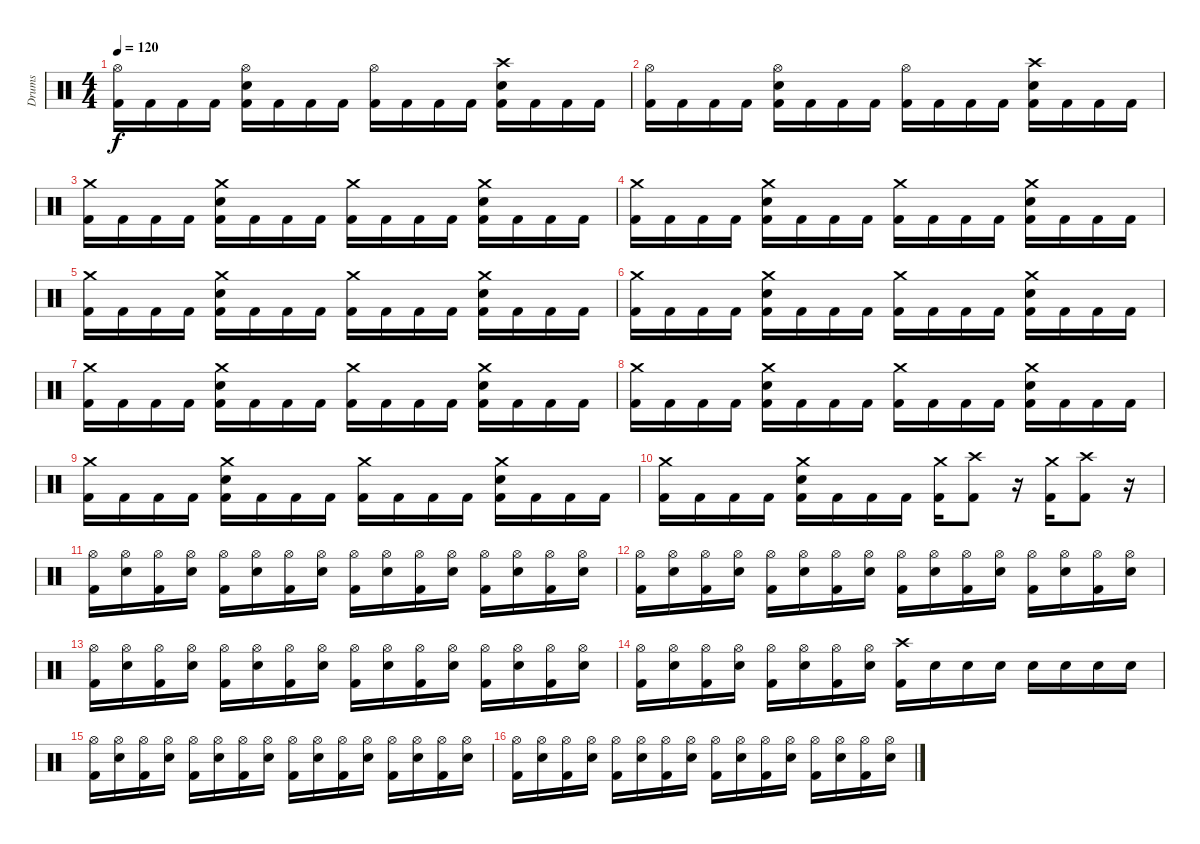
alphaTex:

\track ("Drums" "Drums") {instrument percussion}
\staff {score}
\articulation defaults
\ts (4 4)
\tempo 120
\clef neutral
\ks c
("Hi-Hat (open)" "Kick (hit) 2").16{dy f} "Kick (hit) 2".16 "Kick (hit) 2".16 "Kick (hit) 2".16 ("Hi-Hat (open)" "Electric Snare (hit)" "Kick (hit) 2").16 "Kick (hit) 2".16 "Kick (hit) 2".16 "Kick (hit) 2".16 ("Hi-Hat (open)" "Kick (hit) 2").16 "Kick (hit) 2".16 "Kick (hit) 2".16 "Kick (hit) 2".16 ("Crash high (hit)" "Electric Snare (hit)" "Kick (hit) 2").16 "Kick (hit) 2".16 "Kick (hit) 2".16 "Kick (hit) 2".16 |
("Hi-Hat (open)" "Kick (hit) 2").16 "Kick (hit) 2".16 "Kick (hit) 2".16 "Kick (hit) 2".16 ("Hi-Hat (open)" "Electric Snare (hit)" "Kick (hit) 2").16 "Kick (hit) 2".16 "Kick (hit) 2".16 "Kick (hit) 2".16 ("Hi-Hat (open)" "Kick (hit) 2").16 "Kick (hit) 2".16 "Kick (hit) 2".16 "Kick (hit) 2".16 ("Crash high (hit)" "Electric Snare (hit)" "Kick (hit) 2").16 "Kick (hit) 2".16 "Kick (hit) 2".16 "Kick (hit) 2".16 |
("Crash medium (hit)" "Kick (hit) 2").16 "Kick (hit) 2".16 "Kick (hit) 2".16 "Kick (hit) 2".16 ("Crash medium (hit)" "Electric Snare (hit)" "Kick (hit) 2").16 "Kick (hit) 2".16 "Kick (hit) 2".16 "Kick (hit) 2".16 ("Crash medium (hit)" "Kick (hit) 2").16 "Kick (hit) 2".16 "Kick (hit) 2".16 "Kick (hit) 2".16 ("Crash medium (hit)" "Electric Snare (hit)" "Kick (hit) 2").16 "Kick (hit) 2".16 "Kick (hit) 2".16 "Kick (hit) 2".16 |
("Crash medium (hit)" "Kick (hit) 2").16 "Kick (hit) 2".16 "Kick (hit) 2".16 "Kick (hit) 2".16 ("Crash medium (hit)" "Electric Snare (hit)" "Kick (hit) 2").16 "Kick (hit) 2".16 "Kick (hit) 2".16 "Kick (hit) 2".16 ("Crash medium (hit)" "Kick (hit) 2").16 "Kick (hit) 2".16 "Kick (hit) 2".16 "Kick (hit) 2".16 ("Crash medium (hit)" "Electric Snare (hit)" "Kick (hit) 2").16 "Kick (hit) 2".16 "Kick (hit) 2".16 "Kick (hit) 2".16 |
("Crash medium (hit)" "Kick (hit) 2").16 "Kick (hit) 2".16 "Kick (hit) 2".16 "Kick (hit) 2".16 ("Crash medium (hit)" "Electric Snare (hit)" "Kick (hit) 2").16 "Kick (hit) 2".16 "Kick (hit) 2".16 "Kick (hit) 2".16 ("Crash medium (hit)" "Kick (hit) 2").16 "Kick (hit) 2".16 "Kick (hit) 2".16 "Kick (hit) 2".16 ("Crash medium (hit)" "Electric Snare (hit)" "Kick (hit) 2").16 "Kick (hit) 2".16 "Kick (hit) 2".16 "Kick (hit) 2".16 |
("Crash medium (hit)" "Kick (hit) 2").16 "Kick (hit) 2".16 "Kick (hit) 2".16 "Kick (hit) 2".16 ("Crash medium (hit)" "Electric Snare (hit)" "Kick (hit) 2").16 "Kick (hit) 2".16 "Kick (hit) 2".16 "Kick (hit) 2".16 ("Crash medium (hit)" "Kick (hit) 2").16 "Kick (hit) 2".16 "Kick (hit) 2".16 "Kick (hit) 2".16 ("Crash medium (hit)" "Electric Snare (hit)" "Kick (hit) 2").16 "Kick (hit) 2".16 "Kick (hit) 2".16 "Kick (hit) 2".16 |
("Crash medium (hit)" "Kick (hit) 2").16 "Kick (hit) 2".16 "Kick (hit) 2".16 "Kick (hit) 2".16 ("Crash medium (hit)" "Electric Snare (hit)" "Kick (hit) 2").16 "Kick (hit) 2".16 "Kick (hit) 2".16 "Kick (hit) 2".16 ("Crash medium (hit)" "Kick (hit) 2").16 "Kick (hit) 2".16 "Kick (hit) 2".16 "Kick (hit) 2".16 ("Crash medium (hit)" "Electric Snare (hit)" "Kick (hit) 2").16 "Kick (hit) 2".16 "Kick (hit) 2".16 "Kick (hit) 2".16 |
("Crash medium (hit)" "Kick (hit) 2").16 "Kick (hit) 2".16 "Kick (hit) 2".16 "Kick (hit) 2".16 ("Crash medium (hit)" "Electric Snare (hit)" "Kick (hit) 2").16 "Kick (hit) 2".16 "Kick (hit) 2".16 "Kick (hit) 2".16 ("Crash medium (hit)" "Kick (hit) 2").16 "Kick (hit) 2".16 "Kick (hit) 2".16 "Kick (hit) 2".16 ("Crash medium (hit)" "Electric Snare (hit)" "Kick (hit) 2").16 "Kick (hit) 2".16 "Kick (hit) 2".16 "Kick (hit) 2".16 |
("Crash medium (hit)" "Kick (hit) 2").16 "Kick (hit) 2".16 "Kick (hit) 2".16 "Kick (hit) 2".16 ("Crash medium (hit)" "Electric Snare (hit)" "Kick (hit) 2").16 "Kick (hit) 2".16 "Kick (hit) 2".16 "Kick (hit) 2".16 ("Crash medium (hit)" "Kick (hit) 2").16 "Kick (hit) 2".16 "Kick (hit) 2".16 "Kick (hit) 2".16 ("Crash medium (hit)" "Electric Snare (hit)" "Kick (hit) 2").16 "Kick (hit) 2".16 "Kick (hit) 2".16 "Kick (hit) 2".16 |
("Crash medium (hit)" "Kick (hit) 2").16 "Kick (hit) 2".16 "Kick (hit) 2".16 "Kick (hit) 2".16 ("Crash medium (hit)" "Electric Snare (hit)" "Kick (hit) 2").16 "Kick (hit) 2".16 "Kick (hit) 2".16 "Kick (hit) 2".16 ("Crash medium (hit)" "Kick (hit) 2").16 ("Crash high (hit)" "Kick (hit) 2").8 r.16 ("Crash medium (hit)" "Kick (hit) 2").16 ("Crash high (hit)" "Kick (hit) 2").8 r.16 |
("Hi-Hat (open)" "Kick (hit) 2").16 ("Hi-Hat (open)" "Electric Snare (hit)").16 ("Hi-Hat (open)" "Kick (hit) 2").16 ("Hi-Hat (open)" "Electric Snare (hit)").16 ("Hi-Hat (open)" "Kick (hit) 2").16 ("Hi-Hat (open)" "Electric Snare (hit)").16 ("Hi-Hat (open)" "Kick (hit) 2").16 ("Hi-Hat (open)" "Electric Snare (hit)").16 ("Hi-Hat (open)" "Kick (hit) 2").16 ("Hi-Hat (open)" "Electric Snare (hit)").16 ("Hi-Hat (open)" "Kick (hit) 2").16 ("Hi-Hat (open)" "Electric Snare (hit)").16 ("Hi-Hat (open)" "Kick (hit) 2").16 ("Hi-Hat (open)" "Electric Snare (hit)").16 ("Hi-Hat (open)" "Kick (hit) 2").16 ("Hi-Hat (open)" "Electric Snare (hit)").16 |
("Hi-Hat (open)" "Kick (hit) 2").16 ("Hi-Hat (open)" "Electric Snare (hit)").16 ("Hi-Hat (open)" "Kick (hit) 2").16 ("Hi-Hat (open)" "Electric Snare (hit)").16 ("Hi-Hat (open)" "Kick (hit) 2").16 ("Hi-Hat (open)" "Electric Snare (hit)").16 ("Hi-Hat (open)" "Kick (hit) 2").16 ("Hi-Hat (open)" "Electric Snare (hit)").16 ("Hi-Hat (open)" "Kick (hit) 2").16 ("Hi-Hat (open)" "Electric Snare (hit)").16 ("Hi-Hat (open)" "Kick (hit) 2").16 ("Hi-Hat (open)" "Electric Snare (hit)").16 ("Hi-Hat (open)" "Kick (hit) 2").16 ("Hi-Hat (open)" "Electric Snare (hit)").16 ("Hi-Hat (open)" "Kick (hit) 2").16 ("Hi-Hat (open)" "Electric Snare (hit)").16 |
("Hi-Hat (open)" "Kick (hit) 2").16 ("Hi-Hat (open)" "Electric Snare (hit)").16 ("Hi-Hat (open)" "Kick (hit) 2").16 ("Hi-Hat (open)" "Electric Snare (hit)").16 ("Hi-Hat (open)" "Kick (hit) 2").16 ("Hi-Hat (open)" "Electric Snare (hit)").16 ("Hi-Hat (open)" "Kick (hit) 2").16 ("Hi-Hat (open)" "Electric Snare (hit)").16 ("Hi-Hat (open)" "Kick (hit) 2").16 ("Hi-Hat (open)" "Electric Snare (hit)").16 ("Hi-Hat (open)" "Kick (hit) 2").16 ("Hi-Hat (open)" "Electric Snare (hit)").16 ("Hi-Hat (open)" "Kick (hit) 2").16 ("Hi-Hat (open)" "Electric Snare (hit)").16 ("Hi-Hat (open)" "Kick (hit) 2").16 ("Hi-Hat (open)" "Electric Snare (hit)").16 |
("Hi-Hat (open)" "Kick (hit) 2").16 ("Hi-Hat (open)" "Electric Snare (hit)").16 ("Hi-Hat (open)" "Kick (hit) 2").16 ("Hi-Hat (open)" "Electric Snare (hit)").16 ("Hi-Hat (open)" "Kick (hit) 2").16 ("Hi-Hat (open)" "Electric Snare (hit)").16 ("Hi-Hat (open)" "Kick (hit) 2").16 ("Hi-Hat (open)" "Electric Snare (hit)").16 ("Crash high (hit)" "Kick (hit) 2").16 "Electric Snare (hit)".16 "Electric Snare (hit)".16 "Electric Snare (hit)".16 "Electric Snare (hit)".16 "Electric Snare (hit)".16 "Electric Snare (hit)".16 "Electric Snare (hit)".16 |
("Hi-Hat (open)" "Kick (hit) 2").16 ("Hi-Hat (open)" "Electric Snare (hit)").16 ("Hi-Hat (open)" "Kick (hit) 2").16 ("Hi-Hat (open)" "Electric Snare (hit)").16 ("Hi-Hat (open)" "Kick (hit) 2").16 ("Hi-Hat (open)" "Electric Snare (hit)").16 ("Hi-Hat (open)" "Kick (hit) 2").16 ("Hi-Hat (open)" "Electric Snare (hit)").16 ("Hi-Hat (open)" "Kick (hit) 2").16 ("Hi-Hat (open)" "Electric Snare (hit)").16 ("Hi-Hat (open)" "Kick (hit) 2").16 ("Hi-Hat (open)" "Electric Snare (hit)").16 ("Hi-Hat (open)" "Kick (hit) 2").16 ("Hi-Hat (open)" "Electric Snare (hit)").16 ("Hi-Hat (open)" "Kick (hit) 2").16 ("Hi-Hat (open)" "Electric Snare (hit)").16 |
("Hi-Hat (open)" "Kick (hit) 2").16 ("Hi-Hat (open)" "Electric Snare (hit)").16 ("Hi-Hat (open)" "Kick (hit) 2").16 ("Hi-Hat (open)" "Electric Snare (hit)").16 ("Hi-Hat (open)" "Kick (hit) 2").16 ("Hi-Hat (open)" "Electric Snare (hit)").16 ("Hi-Hat (open)" "Kick (hit) 2").16 ("Hi-Hat (open)" "Electric Snare (hit)").16 ("Hi-Hat (open)" "Kick (hit) 2").16 ("Hi-Hat (open)" "Electric Snare (hit)").16 ("Hi-Hat (open)" "Kick (hit) 2").16 ("Hi-Hat (open)" "Electric Snare (hit)").16 ("Hi-Hat (open)" "Kick (hit) 2").16 ("Hi-Hat (open)" "Electric Snare (hit)").16 ("Hi-Hat (open)" "Kick (hit) 2").16 ("Hi-Hat (open)" "Electric Snare (hit)").16
